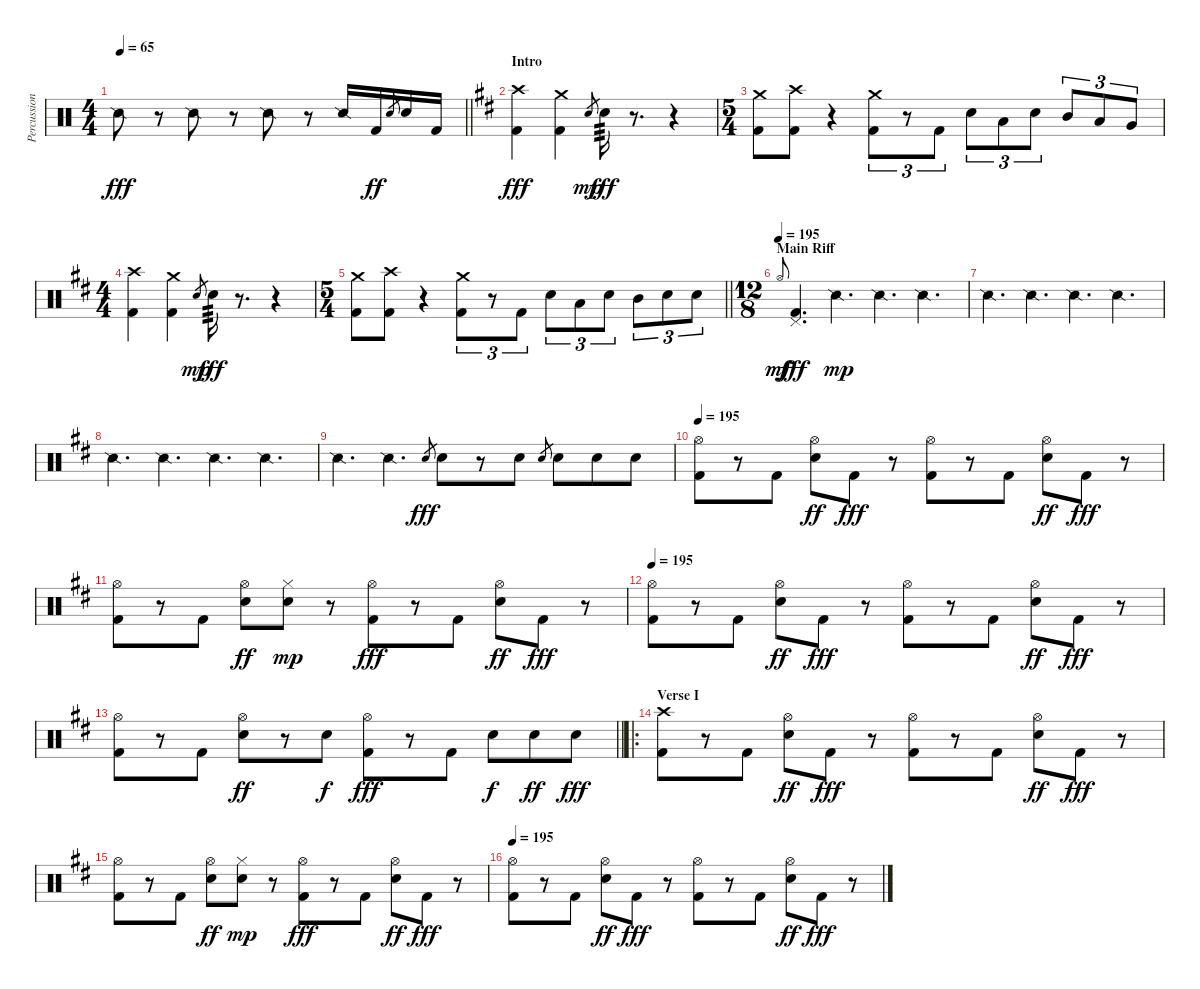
\track ("Percussion" "Percussion") {instrument percussion}
\staff {score}
\articulation defaults
\ts (4 4)
\tempo 65
\clef neutral
\barLineRight lightlight
\ks c "Snare (side stick) 2".8{dy fff}
r.8 "Snare (side stick) 2".8 r.8 "Snare (side stick) 2".8 r.8 "Snare (side stick) 2".16 "Kick (hit) 2".16{dy ff} "Snare (hit) 2".8{gr} "Snare (hit) 2".16 "Kick (hit) 2".16 |
\section ("" "Intro")
\ks d
("Crash high (hit)" "Kick (hit) 2").4{dy fff} ("Crash medium (hit)" "Kick (hit) 2").4 "Snare (hit) 2".8{gr dy mp} "Snare (hit) 2".16{tp 3 dy fff} r.8{d} r.4 |
\ts (5 4)
("Crash medium (hit)" "Kick (hit) 2").8 ("Crash high (hit)" "Kick (hit) 2").8 r.4 ("Crash medium (hit)" "Kick (hit) 2").8{tu (3 2)} r.8{tu (3 2)} "Kick (hit) 2".8{tu (3 2)} "Snare (hit) 2".8{tu (3 2)} "Low Tom (hit)".8{tu (3 2)} "Snare (hit) 2".8{tu (3 2)} "Mid Tom (hit)".8{tu (3 2)} "Low Tom (hit)".8{tu (3 2)} "Very Low Tom (hit)".8{tu (3 2)} |
\ts (4 4)
("Crash high (hit)" "Kick (hit) 2").4 ("Crash medium (hit)" "Kick (hit) 2").4 "Snare (hit) 2".8{gr dy mp} "Snare (hit) 2".16{tp 3 dy fff} r.8{d} r.4 |
\ts (5 4)
\barLineRight lightlight
("Crash medium (hit)" "Kick (hit) 2").8 ("Crash high (hit)" "Kick (hit) 2").8 r.4 ("Crash medium (hit)" "Kick (hit) 2").8{tu (3 2)} r.8{tu (3 2)} "Kick (hit) 2".8{tu (3 2)} "Snare (hit) 2".8{tu (3 2)} "Low Tom (hit)".8{tu (3 2)} "Snare (hit) 2".8{tu (3 2)} "Mid Tom (hit)".8{tu (3 2)} "Snare (hit) 2".8{tu (3 2)} "Snare (hit) 2".8{tu (3 2)} |
\ts (12 8)
\section ("" "Main Riff")
\tempo (195)
"Hi-Hat (open)"{h}.8{gr onbeat dy mf} ("Pedal Hi-Hat (hit)" "Kick (hit) 2").4{d dy fff} "Snare (side stick) 2".4{d dy mp} "Snare (side stick) 2".4{d} "Snare (side stick) 2".4{d} |
"Snare (side stick) 2".4{d} "Snare (side stick) 2".4{d} "Snare (side stick) 2".4{d} "Snare (side stick) 2".4{d} |
"Snare (side stick) 2".4{d} "Snare (side stick) 2".4{d} "Snare (side stick) 2".4{d} "Snare (side stick) 2".4{d} |
"Snare (side stick) 2".4{d} "Snare (side stick) 2".4{d} "Snare (hit) 2".8{gr dy fff} "Snare (hit) 2".8 r.8 "Snare (hit) 2".8 "Snare (hit) 2".8{gr} "Snare (hit) 2".8 "Snare (hit) 2".8 "Snare (hit) 2".8 |
\tempo 195
("Hi-Hat (open)" "Kick (hit) 2").8 r.8 "Kick (hit) 2".8 ("Hi-Hat (open)" "Snare (hit) 2").8{dy ff} "Kick (hit) 2".8{dy fff} r.8 ("Hi-Hat (open)" "Kick (hit) 2").8 r.8 "Kick (hit) 2".8 ("Hi-Hat (open)" "Snare (hit) 2").8{dy ff} "Kick (hit) 2".8{dy fff} r.8 |
("Hi-Hat (open)" "Kick (hit) 2").8 r.8 "Kick (hit) 2".8 ("Hi-Hat (open)" "Snare (hit) 2").8{dy ff} ("Hi-Hat (closed)" "Snare (hit) 2").8{dy mp} r.8 ("Hi-Hat (open)" "Kick (hit) 2").8{dy fff} r.8 "Kick (hit) 2".8 ("Hi-Hat (open)" "Snare (hit) 2").8{dy ff} "Kick (hit) 2".8{dy fff} r.8 |
\tempo 195
("Hi-Hat (open)" "Kick (hit) 2").8 r.8 "Kick (hit) 2".8 ("Hi-Hat (open)" "Snare (hit) 2").8{dy ff} "Kick (hit) 2".8{dy fff} r.8 ("Hi-Hat (open)" "Kick (hit) 2").8 r.8 "Kick (hit) 2".8 ("Hi-Hat (open)" "Snare (hit) 2").8{dy ff} "Kick (hit) 2".8{dy fff} r.8 |
\barLineRight lightlight
("Hi-Hat (open)" "Kick (hit) 2").8 r.8 "Kick (hit) 2".8 ("Hi-Hat (open)" "Snare (hit) 2").8{dy ff} r.8 "Snare (hit) 2".8{dy f} ("Hi-Hat (open)" "Kick (hit) 2").8{dy fff} r.8 "Kick (hit) 2".8 "Snare (hit) 2".8{dy f} "Snare (hit) 2".8{dy ff} "Snare (hit) 2".8{dy fff} |
\ro
\section ("" "Verse I")
("Crash high (hit)" "Kick (hit) 2").8 r.8 "Kick (hit) 2".8 ("Hi-Hat (open)" "Snare (hit) 2").8{dy ff} "Kick (hit) 2".8{dy fff} r.8 ("Hi-Hat (open)" "Kick (hit) 2").8 r.8 "Kick (hit) 2".8 ("Hi-Hat (open)" "Snare (hit) 2").8{dy ff} "Kick (hit) 2".8{dy fff} r.8 |
("Hi-Hat (open)" "Kick (hit) 2").8 r.8 "Kick (hit) 2".8 ("Hi-Hat (open)" "Snare (hit) 2").8{dy ff} ("Hi-Hat (closed)" "Snare (hit) 2").8{dy mp} r.8 ("Hi-Hat (open)" "Kick (hit) 2").8{dy fff} r.8 "Kick (hit) 2".8 ("Hi-Hat (open)" "Snare (hit) 2").8{dy ff} "Kick (hit) 2".8{dy fff} r.8 |
\tempo 195
("Hi-Hat (open)" "Kick (hit) 2").8 r.8 "Kick (hit) 2".8 ("Hi-Hat (open)" "Snare (hit) 2").8{dy ff} "Kick (hit) 2".8{dy fff} r.8 ("Hi-Hat (open)" "Kick (hit) 2").8 r.8 "Kick (hit) 2".8 ("Hi-Hat (open)" "Snare (hit) 2").8{dy ff} "Kick (hit) 2".8{dy fff} r.8
